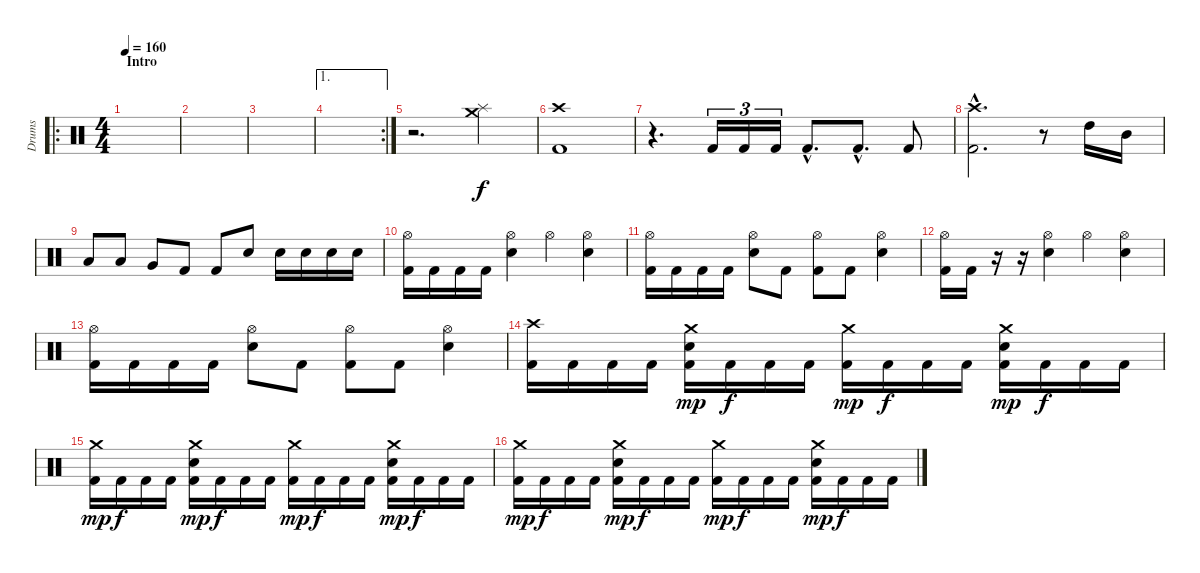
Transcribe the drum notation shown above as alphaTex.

\track ("Drums" "Drums") {instrument percussion}
\staff {score}
\articulation defaults
\ro
\ts (4 4)
\section ("" "Intro")
\tempo 160
\clef neutral
\ks c
|
|
|
\ae 1
\rc 2
|
r.2{d} ("Crash medium (hit)" "Splash (hit)").4 |
("Crash high (hit)" "Kick (hit) 2").1 |
r.4{d} "Kick (hit) 2".16{tu (3 2)} "Kick (hit) 2".16{tu (3 2)} "Kick (hit) 2".16{tu (3 2)} "Kick (hit) 2"{hac}.8{d} "Kick (hit) 2"{hac}.8{d} "Kick (hit) 2".8 |
("Crash high (hit)"{hac} "Kick (hit) 2"{hac}).2{d} r.8 "High Tom (hit)".16 "Mid Tom (hit)".16 |
"Low Tom (hit)".8 "Low Tom (hit)".8 "Very Low Tom (hit)".8 "Kick (hit) 2".8 "Kick (hit) 2".8 "Electric Snare (hit)".8 "Electric Snare (hit)".16 "Electric Snare (hit)".16 "Electric Snare (hit)".16 "Electric Snare (hit)".16 |
("Hi-Hat (open)" "Kick (hit) 2").16 "Kick (hit) 2".16 "Kick (hit) 2".16 "Kick (hit) 2".16 ("Hi-Hat (open)" "Electric Snare (hit)").4 "Hi-Hat (open)".4 ("Hi-Hat (open)" "Electric Snare (hit)").4 |
("Hi-Hat (open)" "Kick (hit) 2").16 "Kick (hit) 2".16 "Kick (hit) 2".16 "Kick (hit) 2".16 ("Hi-Hat (open)" "Electric Snare (hit)").8 "Kick (hit) 2".8 ("Hi-Hat (open)" "Kick (hit) 2").8 "Kick (hit) 2".8 ("Hi-Hat (open)" "Electric Snare (hit)").4 |
("Hi-Hat (open)" "Kick (hit) 2").16 "Kick (hit) 2".16 r.16 r.16 ("Hi-Hat (open)" "Electric Snare (hit)").4 "Hi-Hat (open)".4 ("Hi-Hat (open)" "Electric Snare (hit)").4 |
("Hi-Hat (open)" "Kick (hit) 2").16 "Kick (hit) 2".16 "Kick (hit) 2".16 "Kick (hit) 2".16 ("Hi-Hat (open)" "Electric Snare (hit)").8 "Kick (hit) 2".8 ("Hi-Hat (open)" "Kick (hit) 2").8 "Kick (hit) 2".8 ("Hi-Hat (open)" "Electric Snare (hit)").4 |
("Crash high (hit)" "Kick (hit) 2").16 "Kick (hit) 2".16 "Kick (hit) 2".16 "Kick (hit) 2".16 ("Crash medium (hit)" "Electric Snare (hit)" "Kick (hit) 2").16{dy mp} "Kick (hit) 2".16{dy f} "Kick (hit) 2".16 "Kick (hit) 2".16 ("Crash medium (hit)" "Kick (hit) 2").16{dy mp} "Kick (hit) 2".16{dy f} "Kick (hit) 2".16 "Kick (hit) 2".16 ("Crash medium (hit)" "Electric Snare (hit)" "Kick (hit) 2").16{dy mp} "Kick (hit) 2".16{dy f} "Kick (hit) 2".16 "Kick (hit) 2".16 |
("Crash medium (hit)" "Kick (hit) 2").16{dy mp} "Kick (hit) 2".16{dy f} "Kick (hit) 2".16 "Kick (hit) 2".16 ("Crash medium (hit)" "Electric Snare (hit)" "Kick (hit) 2").16{dy mp} "Kick (hit) 2".16{dy f} "Kick (hit) 2".16 "Kick (hit) 2".16 ("Crash medium (hit)" "Kick (hit) 2").16{dy mp} "Kick (hit) 2".16{dy f} "Kick (hit) 2".16 "Kick (hit) 2".16 ("Crash medium (hit)" "Electric Snare (hit)" "Kick (hit) 2").16{dy mp} "Kick (hit) 2".16{dy f} "Kick (hit) 2".16 "Kick (hit) 2".16 |
("Crash medium (hit)" "Kick (hit) 2").16{dy mp} "Kick (hit) 2".16{dy f} "Kick (hit) 2".16 "Kick (hit) 2".16 ("Crash medium (hit)" "Electric Snare (hit)" "Kick (hit) 2").16{dy mp} "Kick (hit) 2".16{dy f} "Kick (hit) 2".16 "Kick (hit) 2".16 ("Crash medium (hit)" "Kick (hit) 2").16{dy mp} "Kick (hit) 2".16{dy f} "Kick (hit) 2".16 "Kick (hit) 2".16 ("Crash medium (hit)" "Electric Snare (hit)" "Kick (hit) 2").16{dy mp} "Kick (hit) 2".16{dy f} "Kick (hit) 2".16 "Kick (hit) 2".16
